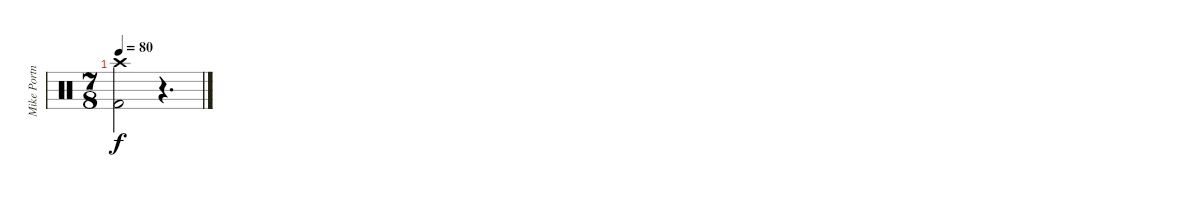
\track ("Mike Portnoy" "Mike Portn") {instrument percussion}
\staff {score}
\articulation defaults
\ts (7 8)
\tempo 80
\clef neutral
\ks c
("Kick (hit) 2" "Crash high (hit)").2{dy f} r.4{d}
